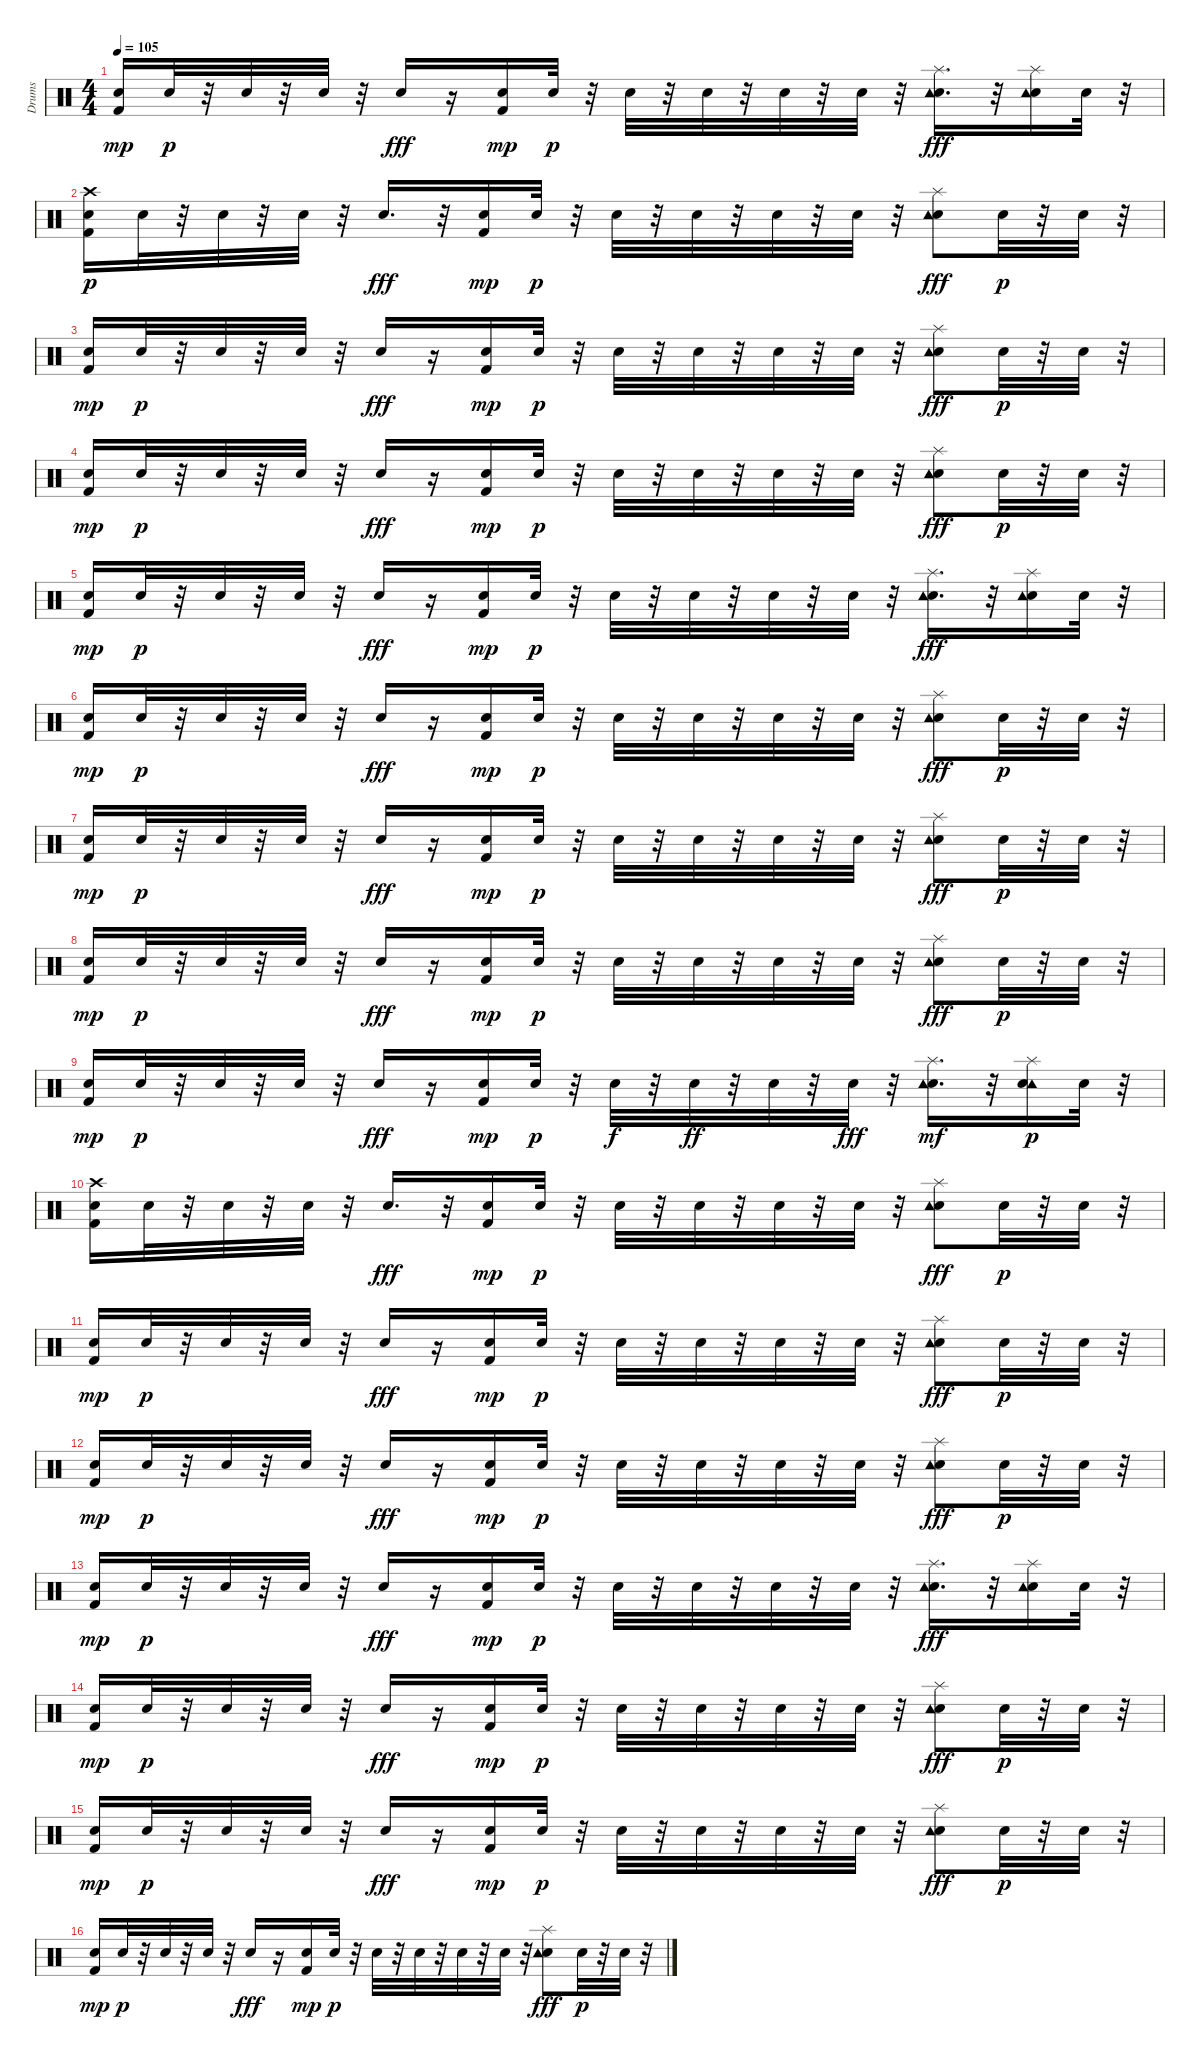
\track ("Drums" "Drums") {instrument percussion}
\staff {score}
\articulation defaults
\ts (4 4)
\tempo 105
\clef neutral
\ks c
("Snare (hit) 2" "Kick (hit) 2").16{dy mp} "Snare (hit) 2".32{dy p} r.32 "Snare (hit) 2".32 r.32 "Snare (hit) 2".32 r.32 "Snare (hit) 2".16{dy fff} r.16 ("Snare (hit) 2" "Kick (hit) 2").16{dy mp} "Snare (hit) 2".32{dy p} r.32 "Snare (hit) 2".32 r.32 "Snare (hit) 2".32 r.32 "Snare (hit) 2".32 r.32 "Snare (hit) 2".32 r.32 ("Snare (hit) 2" "Splash (hit)" "Tambourine (hit)").16{d dy fff} r.32 ("Snare (hit) 2" "Splash (hit)" "Tambourine (hit)").16 "Snare (hit) 2".32 r.32 |
("Crash high (hit)" "Kick (hit) 2" "Snare (hit) 2").16{dy p} "Snare (hit) 2".32 r.32 "Snare (hit) 2".32 r.32 "Snare (hit) 2".32 r.32 "Snare (hit) 2".16{d dy fff} r.32 ("Snare (hit) 2" "Kick (hit) 2").16{dy mp} "Snare (hit) 2".32{dy p} r.32 "Snare (hit) 2".32 r.32 "Snare (hit) 2".32 r.32 "Snare (hit) 2".32 r.32 "Snare (hit) 2".32 r.32 ("Snare (hit) 2" "Splash (hit)" "Tambourine (hit)").8{dy fff} "Snare (hit) 2".32{dy p} r.32 "Snare (hit) 2".32 r.32 |
("Snare (hit) 2" "Kick (hit) 2").16{dy mp} "Snare (hit) 2".32{dy p} r.32 "Snare (hit) 2".32 r.32 "Snare (hit) 2".32 r.32 "Snare (hit) 2".16{dy fff} r.16 ("Snare (hit) 2" "Kick (hit) 2").16{dy mp} "Snare (hit) 2".32{dy p} r.32 "Snare (hit) 2".32 r.32 "Snare (hit) 2".32 r.32 "Snare (hit) 2".32 r.32 "Snare (hit) 2".32 r.32 ("Snare (hit) 2" "Splash (hit)" "Tambourine (hit)").8{dy fff} "Snare (hit) 2".32{dy p} r.32 "Snare (hit) 2".32 r.32 |
("Snare (hit) 2" "Kick (hit) 2").16{dy mp} "Snare (hit) 2".32{dy p} r.32 "Snare (hit) 2".32 r.32 "Snare (hit) 2".32 r.32 "Snare (hit) 2".16{dy fff} r.16 ("Snare (hit) 2" "Kick (hit) 2").16{dy mp} "Snare (hit) 2".32{dy p} r.32 "Snare (hit) 2".32 r.32 "Snare (hit) 2".32 r.32 "Snare (hit) 2".32 r.32 "Snare (hit) 2".32 r.32 ("Snare (hit) 2" "Splash (hit)" "Tambourine (hit)").8{dy fff} "Snare (hit) 2".32{dy p} r.32 "Snare (hit) 2".32 r.32 |
("Snare (hit) 2" "Kick (hit) 2").16{dy mp} "Snare (hit) 2".32{dy p} r.32 "Snare (hit) 2".32 r.32 "Snare (hit) 2".32 r.32 "Snare (hit) 2".16{dy fff} r.16 ("Snare (hit) 2" "Kick (hit) 2").16{dy mp} "Snare (hit) 2".32{dy p} r.32 "Snare (hit) 2".32 r.32 "Snare (hit) 2".32 r.32 "Snare (hit) 2".32 r.32 "Snare (hit) 2".32 r.32 ("Snare (hit) 2" "Splash (hit)" "Tambourine (hit)").16{d dy fff} r.32 ("Snare (hit) 2" "Splash (hit)" "Tambourine (hit)").16 "Snare (hit) 2".32 r.32 |
("Snare (hit) 2" "Kick (hit) 2").16{dy mp} "Snare (hit) 2".32{dy p} r.32 "Snare (hit) 2".32 r.32 "Snare (hit) 2".32 r.32 "Snare (hit) 2".16{dy fff} r.16 ("Snare (hit) 2" "Kick (hit) 2").16{dy mp} "Snare (hit) 2".32{dy p} r.32 "Snare (hit) 2".32 r.32 "Snare (hit) 2".32 r.32 "Snare (hit) 2".32 r.32 "Snare (hit) 2".32 r.32 ("Snare (hit) 2" "Splash (hit)" "Tambourine (hit)").8{dy fff} "Snare (hit) 2".32{dy p} r.32 "Snare (hit) 2".32 r.32 |
("Snare (hit) 2" "Kick (hit) 2").16{dy mp} "Snare (hit) 2".32{dy p} r.32 "Snare (hit) 2".32 r.32 "Snare (hit) 2".32 r.32 "Snare (hit) 2".16{dy fff} r.16 ("Snare (hit) 2" "Kick (hit) 2").16{dy mp} "Snare (hit) 2".32{dy p} r.32 "Snare (hit) 2".32 r.32 "Snare (hit) 2".32 r.32 "Snare (hit) 2".32 r.32 "Snare (hit) 2".32 r.32 ("Snare (hit) 2" "Splash (hit)" "Tambourine (hit)").8{dy fff} "Snare (hit) 2".32{dy p} r.32 "Snare (hit) 2".32 r.32 |
("Snare (hit) 2" "Kick (hit) 2").16{dy mp} "Snare (hit) 2".32{dy p} r.32 "Snare (hit) 2".32 r.32 "Snare (hit) 2".32 r.32 "Snare (hit) 2".16{dy fff} r.16 ("Snare (hit) 2" "Kick (hit) 2").16{dy mp} "Snare (hit) 2".32{dy p} r.32 "Snare (hit) 2".32 r.32 "Snare (hit) 2".32 r.32 "Snare (hit) 2".32 r.32 "Snare (hit) 2".32 r.32 ("Snare (hit) 2" "Splash (hit)" "Tambourine (hit)").8{dy fff} "Snare (hit) 2".32{dy p} r.32 "Snare (hit) 2".32 r.32 |
("Snare (hit) 2" "Kick (hit) 2").16{dy mp} "Snare (hit) 2".32{dy p} r.32 "Snare (hit) 2".32 r.32 "Snare (hit) 2".32 r.32 "Snare (hit) 2".16{dy fff} r.16 ("Snare (hit) 2" "Kick (hit) 2").16{dy mp} "Snare (hit) 2".32{dy p} r.32 "Snare (hit) 2".32{dy f} r.32 "Snare (hit) 2".32{dy ff} r.32 "Snare (hit) 2".32 r.32 "Snare (hit) 2".32{dy fff} r.32 ("Snare (hit) 2" "Splash (hit)" "Tambourine (hit)").16{d dy mf} r.32 ("Tambourine (hit)" "Splash (hit)" "Snare (hit) 2").16{dy p} "Snare (hit) 2".32 r.32 |
("Crash high (hit)" "Kick (hit) 2" "Snare (hit) 2").16 "Snare (hit) 2".32 r.32 "Snare (hit) 2".32 r.32 "Snare (hit) 2".32 r.32 "Snare (hit) 2".16{d dy fff} r.32 ("Snare (hit) 2" "Kick (hit) 2").16{dy mp} "Snare (hit) 2".32{dy p} r.32 "Snare (hit) 2".32 r.32 "Snare (hit) 2".32 r.32 "Snare (hit) 2".32 r.32 "Snare (hit) 2".32 r.32 ("Snare (hit) 2" "Splash (hit)" "Tambourine (hit)").8{dy fff} "Snare (hit) 2".32{dy p} r.32 "Snare (hit) 2".32 r.32 |
("Snare (hit) 2" "Kick (hit) 2").16{dy mp} "Snare (hit) 2".32{dy p} r.32 "Snare (hit) 2".32 r.32 "Snare (hit) 2".32 r.32 "Snare (hit) 2".16{dy fff} r.16 ("Snare (hit) 2" "Kick (hit) 2").16{dy mp} "Snare (hit) 2".32{dy p} r.32 "Snare (hit) 2".32 r.32 "Snare (hit) 2".32 r.32 "Snare (hit) 2".32 r.32 "Snare (hit) 2".32 r.32 ("Snare (hit) 2" "Splash (hit)" "Tambourine (hit)").8{dy fff} "Snare (hit) 2".32{dy p} r.32 "Snare (hit) 2".32 r.32 |
("Snare (hit) 2" "Kick (hit) 2").16{dy mp} "Snare (hit) 2".32{dy p} r.32 "Snare (hit) 2".32 r.32 "Snare (hit) 2".32 r.32 "Snare (hit) 2".16{dy fff} r.16 ("Snare (hit) 2" "Kick (hit) 2").16{dy mp} "Snare (hit) 2".32{dy p} r.32 "Snare (hit) 2".32 r.32 "Snare (hit) 2".32 r.32 "Snare (hit) 2".32 r.32 "Snare (hit) 2".32 r.32 ("Snare (hit) 2" "Splash (hit)" "Tambourine (hit)").8{dy fff} "Snare (hit) 2".32{dy p} r.32 "Snare (hit) 2".32 r.32 |
("Snare (hit) 2" "Kick (hit) 2").16{dy mp} "Snare (hit) 2".32{dy p} r.32 "Snare (hit) 2".32 r.32 "Snare (hit) 2".32 r.32 "Snare (hit) 2".16{dy fff} r.16 ("Snare (hit) 2" "Kick (hit) 2").16{dy mp} "Snare (hit) 2".32{dy p} r.32 "Snare (hit) 2".32 r.32 "Snare (hit) 2".32 r.32 "Snare (hit) 2".32 r.32 "Snare (hit) 2".32 r.32 ("Snare (hit) 2" "Splash (hit)" "Tambourine (hit)").16{d dy fff} r.32 ("Snare (hit) 2" "Splash (hit)" "Tambourine (hit)").16 "Snare (hit) 2".32 r.32 |
("Snare (hit) 2" "Kick (hit) 2").16{dy mp} "Snare (hit) 2".32{dy p} r.32 "Snare (hit) 2".32 r.32 "Snare (hit) 2".32 r.32 "Snare (hit) 2".16{dy fff} r.16 ("Snare (hit) 2" "Kick (hit) 2").16{dy mp} "Snare (hit) 2".32{dy p} r.32 "Snare (hit) 2".32 r.32 "Snare (hit) 2".32 r.32 "Snare (hit) 2".32 r.32 "Snare (hit) 2".32 r.32 ("Snare (hit) 2" "Splash (hit)" "Tambourine (hit)").8{dy fff} "Snare (hit) 2".32{dy p} r.32 "Snare (hit) 2".32 r.32 |
("Snare (hit) 2" "Kick (hit) 2").16{dy mp} "Snare (hit) 2".32{dy p} r.32 "Snare (hit) 2".32 r.32 "Snare (hit) 2".32 r.32 "Snare (hit) 2".16{dy fff} r.16 ("Snare (hit) 2" "Kick (hit) 2").16{dy mp} "Snare (hit) 2".32{dy p} r.32 "Snare (hit) 2".32 r.32 "Snare (hit) 2".32 r.32 "Snare (hit) 2".32 r.32 "Snare (hit) 2".32 r.32 ("Snare (hit) 2" "Splash (hit)" "Tambourine (hit)").8{dy fff} "Snare (hit) 2".32{dy p} r.32 "Snare (hit) 2".32 r.32 |
("Snare (hit) 2" "Kick (hit) 2").16{dy mp} "Snare (hit) 2".32{dy p} r.32 "Snare (hit) 2".32 r.32 "Snare (hit) 2".32 r.32 "Snare (hit) 2".16{dy fff} r.16 ("Snare (hit) 2" "Kick (hit) 2").16{dy mp} "Snare (hit) 2".32{dy p} r.32 "Snare (hit) 2".32 r.32 "Snare (hit) 2".32 r.32 "Snare (hit) 2".32 r.32 "Snare (hit) 2".32 r.32 ("Snare (hit) 2" "Splash (hit)" "Tambourine (hit)").8{dy fff} "Snare (hit) 2".32{dy p} r.32 "Snare (hit) 2".32 r.32
